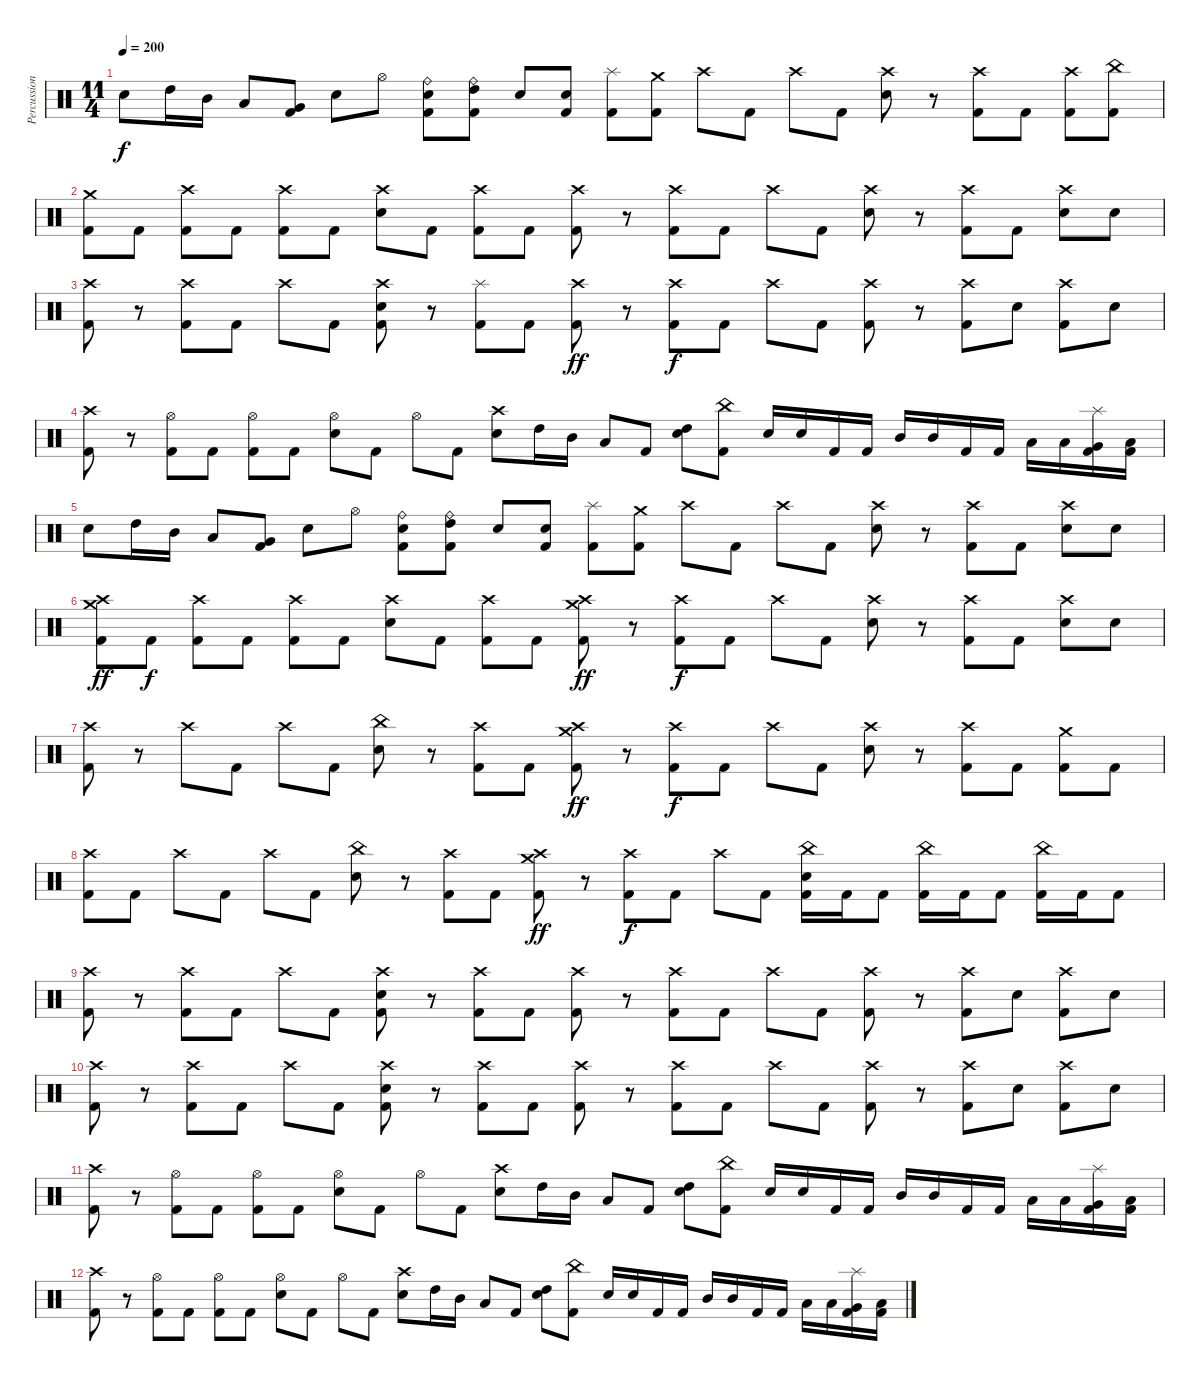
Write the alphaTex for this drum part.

\track ("Percussion" "Percussion") {instrument percussion}
\staff {score}
\articulation defaults
\ts (11 4)
\tempo 200
\clef neutral
\ks c "Electric Snare (hit)".8{dy f} "High Tom (hit)".16 "Mid Tom (hit)".16 "Low Tom (hit)".8
("Very Low Tom (hit)" "Kick (hit) 2").8 "Electric Snare (hit)".8 "Hi-Hat (open)".8 ("Electric Snare (hit)" "Ride (bell)" "Kick (hit) 2").8 ("High Tom (hit)" "Ride (bell)" "Kick (hit) 2").8 "Electric Snare (hit)".8 ("Electric Snare (hit)" "Kick (hit) 2").8 ("Splash (hit)" "Kick (hit) 2").8 ("Crash medium (hit)" "Kick (hit) 2").8 "Crash high (hit)".8 "Kick (hit) 2".8 "Crash high (hit)".8 "Kick (hit) 2".8 ("Electric Snare (hit)" "Crash high (hit)").8 r.8 ("Kick (hit) 2" "Crash high (hit)").8 "Kick (hit) 2".8 ("Kick (hit) 2" "Crash high (hit)").8 ("Kick (hit) 2" "China (hit)").8 |
("Kick (hit) 2" "Crash medium (hit)").8 "Kick (hit) 2".8 ("Kick (hit) 2" "Crash high (hit)").8 "Kick (hit) 2".8 ("Crash high (hit)" "Kick (hit) 2").8 "Kick (hit) 2".8 ("Crash high (hit)" "Electric Snare (hit)").8 "Kick (hit) 2".8 ("Crash high (hit)" "Kick (hit) 2").8 "Kick (hit) 2".8 ("Kick (hit) 2" "Crash high (hit)").8 r.8 ("Crash high (hit)" "Kick (hit) 2").8 "Kick (hit) 2".8 "Crash high (hit)".8 "Kick (hit) 2".8 ("Crash high (hit)" "Electric Snare (hit)").8 r.8 ("Crash high (hit)" "Kick (hit) 2").8 "Kick (hit) 2".8 ("Crash high (hit)" "Electric Snare (hit)").8 "Electric Snare (hit)".8 |
("Crash high (hit)" "Kick (hit) 2").8 r.8 ("Crash high (hit)" "Kick (hit) 2").8 "Kick (hit) 2".8 "Crash high (hit)".8 "Kick (hit) 2".8 ("Electric Snare (hit)" "Crash high (hit)" "Kick (hit) 2").8 r.8 ("Splash (hit)" "Kick (hit) 2").8 "Kick (hit) 2".8 ("Crash high (hit)" "Kick (hit) 2").8{dy ff} r.8 ("Crash high (hit)" "Kick (hit) 2").8{dy f} "Kick (hit) 2".8 "Crash high (hit)".8 "Kick (hit) 2".8 ("Crash high (hit)" "Kick (hit) 2").8 r.8 ("Crash high (hit)" "Kick (hit) 2").8 "Electric Snare (hit)".8 ("Crash high (hit)" "Kick (hit) 2").8 "Electric Snare (hit)".8 |
("Crash high (hit)" "Kick (hit) 2").8 r.8 ("Hi-Hat (open)" "Kick (hit) 2").8 "Kick (hit) 2".8 ("Hi-Hat (open)" "Kick (hit) 2").8 "Kick (hit) 2".8 ("Hi-Hat (open)" "Electric Snare (hit)").8 "Kick (hit) 2".8 "Hi-Hat (open)".8 "Kick (hit) 2".8 ("Crash high (hit)" "Electric Snare (hit)").8 "High Tom (hit)".16 "Mid Tom (hit)".16 "Low Tom (hit)".8 "Kick (hit) 2".8 ("Electric Snare (hit)" "High Tom (hit)").8 ("China (hit)" "Kick (hit) 2").8 "Electric Snare (hit)".16 "Electric Snare (hit)".16 "Kick (hit) 2".16 "Kick (hit) 2".16 "Mid Tom (hit)".16 "Mid Tom (hit)".16 "Kick (hit) 2".16 "Kick (hit) 2".16 "Low Tom (hit)".16 "Low Tom (hit)".16 ("Splash (hit)" "Very Low Tom (hit)" "Kick (hit) 2").16 ("Low Floor Tom (hit)" "Kick (hit) 2").16 |
"Electric Snare (hit)".8 "High Tom (hit)".16 "Mid Tom (hit)".16 "Low Tom (hit)".8 ("Very Low Tom (hit)" "Kick (hit) 2").8 "Electric Snare (hit)".8 "Hi-Hat (open)".8 ("Electric Snare (hit)" "Ride (bell)" "Kick (hit) 2").8 ("High Tom (hit)" "Ride (bell)" "Kick (hit) 2").8 "Electric Snare (hit)".8 ("Electric Snare (hit)" "Kick (hit) 2").8 ("Kick (hit) 2" "Splash (hit)").8 ("Crash medium (hit)" "Kick (hit) 2").8 "Crash high (hit)".8 "Kick (hit) 2".8 "Crash high (hit)".8 "Kick (hit) 2".8 ("Electric Snare (hit)" "Crash high (hit)").8 r.8 ("Kick (hit) 2" "Crash high (hit)").8 "Kick (hit) 2".8 ("Crash high (hit)" "Electric Snare (hit)").8 "Electric Snare (hit)".8 |
("Crash high (hit)" "Kick (hit) 2" "Crash medium (hit)").8{dy ff} "Kick (hit) 2".8{dy f} ("Kick (hit) 2" "Crash high (hit)").8 "Kick (hit) 2".8 ("Crash high (hit)" "Kick (hit) 2").8 "Kick (hit) 2".8 ("Crash high (hit)" "Electric Snare (hit)").8 "Kick (hit) 2".8 ("Crash high (hit)" "Kick (hit) 2").8 "Kick (hit) 2".8 ("Crash medium (hit)" "Kick (hit) 2" "Crash high (hit)").8{dy ff} r.8 ("Crash high (hit)" "Kick (hit) 2").8{dy f} "Kick (hit) 2".8 "Crash high (hit)".8 "Kick (hit) 2".8 ("Crash high (hit)" "Electric Snare (hit)").8 r.8 ("Crash high (hit)" "Kick (hit) 2").8 "Kick (hit) 2".8 ("Crash high (hit)" "Electric Snare (hit)").8 "Electric Snare (hit)".8 |
("Kick (hit) 2" "Crash high (hit)").8 r.8 "Crash high (hit)".8 "Kick (hit) 2".8 "Crash high (hit)".8 "Kick (hit) 2".8 ("China (hit)" "Electric Snare (hit)").8 r.8 ("Crash high (hit)" "Kick (hit) 2").8 "Kick (hit) 2".8 ("Crash medium (hit)" "Kick (hit) 2" "Crash high (hit)").8{dy ff} r.8 ("Crash high (hit)" "Kick (hit) 2").8{dy f} "Kick (hit) 2".8 "Crash high (hit)".8 "Kick (hit) 2".8 ("Crash high (hit)" "Electric Snare (hit)").8 r.8 ("Crash high (hit)" "Kick (hit) 2").8 "Kick (hit) 2".8 ("Crash medium (hit)" "Kick (hit) 2").8 "Kick (hit) 2".8 |
("Kick (hit) 2" "Crash high (hit)").8 "Kick (hit) 2".8 "Crash high (hit)".8 "Kick (hit) 2".8 "Crash high (hit)".8 "Kick (hit) 2".8 ("China (hit)" "Electric Snare (hit)").8 r.8 ("Crash high (hit)" "Kick (hit) 2").8 "Kick (hit) 2".8 ("Crash medium (hit)" "Kick (hit) 2" "Crash high (hit)").8{dy ff} r.8 ("Crash high (hit)" "Kick (hit) 2").8{dy f} "Kick (hit) 2".8 "Crash high (hit)".8 "Kick (hit) 2".8 ("China (hit)" "Kick (hit) 2" "Electric Snare (hit)").16 "Kick (hit) 2".16 "Kick (hit) 2".8 ("China (hit)" "Kick (hit) 2").16 "Kick (hit) 2".16 "Kick (hit) 2".8 ("China (hit)" "Kick (hit) 2").16 "Kick (hit) 2".16 "Kick (hit) 2".8 |
("Crash high (hit)" "Kick (hit) 2").8 r.8 ("Crash high (hit)" "Kick (hit) 2").8 "Kick (hit) 2".8 "Crash high (hit)".8 "Kick (hit) 2".8 ("Electric Snare (hit)" "Crash high (hit)" "Kick (hit) 2").8 r.8 ("Crash high (hit)" "Kick (hit) 2").8 "Kick (hit) 2".8 ("Crash high (hit)" "Kick (hit) 2").8 r.8 ("Crash high (hit)" "Kick (hit) 2").8 "Kick (hit) 2".8 "Crash high (hit)".8 "Kick (hit) 2".8 ("Crash high (hit)" "Kick (hit) 2").8 r.8 ("Crash high (hit)" "Kick (hit) 2").8 "Electric Snare (hit)".8 ("Crash high (hit)" "Kick (hit) 2").8 "Electric Snare (hit)".8 |
("Crash high (hit)" "Kick (hit) 2").8 r.8 ("Crash high (hit)" "Kick (hit) 2").8 "Kick (hit) 2".8 "Crash high (hit)".8 "Kick (hit) 2".8 ("Electric Snare (hit)" "Crash high (hit)" "Kick (hit) 2").8 r.8 ("Crash high (hit)" "Kick (hit) 2").8 "Kick (hit) 2".8 ("Crash high (hit)" "Kick (hit) 2").8 r.8 ("Crash high (hit)" "Kick (hit) 2").8 "Kick (hit) 2".8 "Crash high (hit)".8 "Kick (hit) 2".8 ("Crash high (hit)" "Kick (hit) 2").8 r.8 ("Crash high (hit)" "Kick (hit) 2").8 "Electric Snare (hit)".8 ("Crash high (hit)" "Kick (hit) 2").8 "Electric Snare (hit)".8 |
("Crash high (hit)" "Kick (hit) 2").8 r.8 ("Hi-Hat (open)" "Kick (hit) 2").8 "Kick (hit) 2".8 ("Hi-Hat (open)" "Kick (hit) 2").8 "Kick (hit) 2".8 ("Hi-Hat (open)" "Electric Snare (hit)").8 "Kick (hit) 2".8 "Hi-Hat (open)".8 "Kick (hit) 2".8 ("Crash high (hit)" "Electric Snare (hit)").8 "High Tom (hit)".16 "Mid Tom (hit)".16 "Low Tom (hit)".8 "Kick (hit) 2".8 ("Electric Snare (hit)" "High Tom (hit)").8 ("China (hit)" "Kick (hit) 2").8 "Electric Snare (hit)".16 "Electric Snare (hit)".16 "Kick (hit) 2".16 "Kick (hit) 2".16 "Mid Tom (hit)".16 "Mid Tom (hit)".16 "Kick (hit) 2".16 "Kick (hit) 2".16 "Low Tom (hit)".16 "Low Tom (hit)".16 ("Splash (hit)" "Very Low Tom (hit)" "Kick (hit) 2").16 ("Low Floor Tom (hit)" "Kick (hit) 2").16 |
("Crash high (hit)" "Kick (hit) 2").8 r.8 ("Hi-Hat (open)" "Kick (hit) 2").8 "Kick (hit) 2".8 ("Hi-Hat (open)" "Kick (hit) 2").8 "Kick (hit) 2".8 ("Hi-Hat (open)" "Electric Snare (hit)").8 "Kick (hit) 2".8 "Hi-Hat (open)".8 "Kick (hit) 2".8 ("Crash high (hit)" "Electric Snare (hit)").8 "High Tom (hit)".16 "Mid Tom (hit)".16 "Low Tom (hit)".8 "Kick (hit) 2".8 ("Electric Snare (hit)" "High Tom (hit)").8 ("China (hit)" "Kick (hit) 2").8 "Electric Snare (hit)".16 "Electric Snare (hit)".16 "Kick (hit) 2".16 "Kick (hit) 2".16 "Mid Tom (hit)".16 "Mid Tom (hit)".16 "Kick (hit) 2".16 "Kick (hit) 2".16 "Low Tom (hit)".16 "Low Tom (hit)".16 ("Splash (hit)" "Very Low Tom (hit)" "Kick (hit) 2").16 ("Low Floor Tom (hit)" "Kick (hit) 2").16
